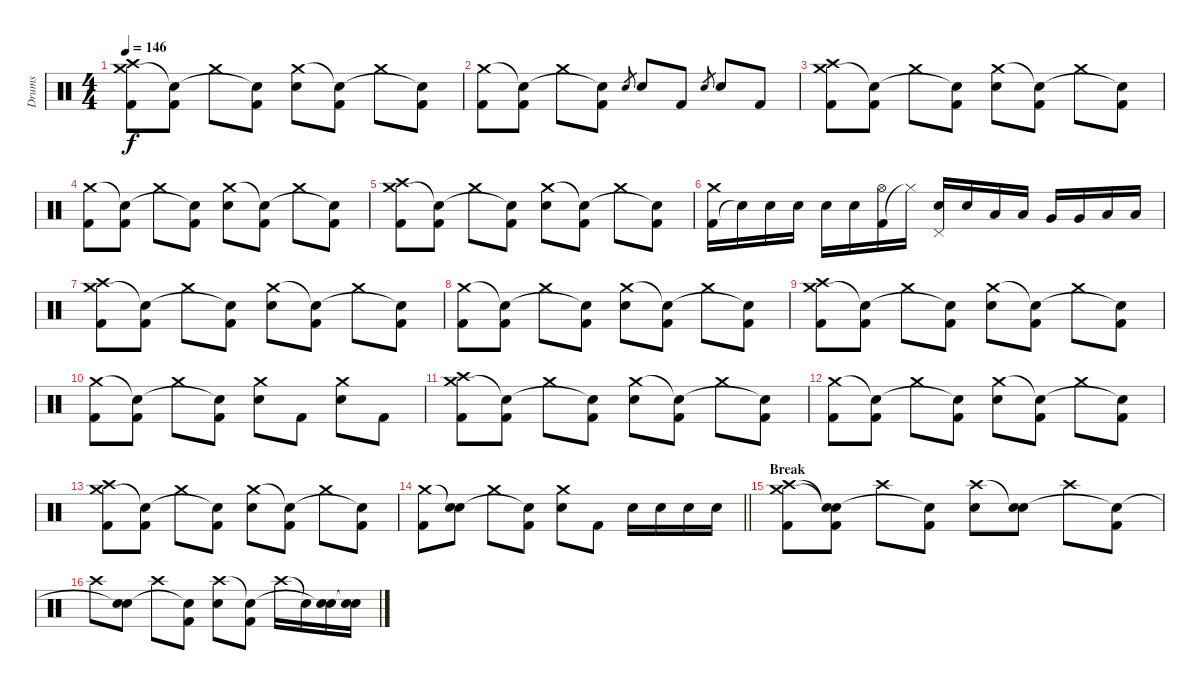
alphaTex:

\track ("Drums" "Drums") {instrument percussion}
\staff {score}
\articulation defaults
\ts (4 4)
\tempo 146
\clef neutral
\ks c
("Kick (hit) 2" "Crash medium (hit)" "Crash high (hit)").8{dy f} ("Kick (hit) 2" "Snare (hit)"{t}).8 "Crash medium (hit)".8 ("Kick (hit) 2" "Snare (hit)"{t}).8 ("Electric Snare (hit)" "Crash medium (hit)").8 ("Kick (hit) 2" "Snare (hit)"{t}).8 "Crash medium (hit)".8 ("Kick (hit) 2" "Snare (hit)"{t}).8 |
("Kick (hit) 2" "Crash medium (hit)").8 ("Kick (hit) 2" "Snare (hit)"{t}).8 "Crash medium (hit)".8 ("Kick (hit) 2" "Snare (hit)"{t}).8 "Electric Snare (hit)".8{gr} "Electric Snare (hit)".8 "Kick (hit) 2".8 "Electric Snare (hit)".8{gr} "Electric Snare (hit)".8 "Kick (hit) 2".8 |
("Kick (hit) 2" "Crash medium (hit)" "Crash high (hit)").8 ("Kick (hit) 2" "Snare (hit)"{t}).8 "Crash medium (hit)".8 ("Kick (hit) 2" "Snare (hit)"{t}).8 ("Electric Snare (hit)" "Crash medium (hit)").8 ("Kick (hit) 2" "Snare (hit)"{t}).8 "Crash medium (hit)".8 ("Kick (hit) 2" "Snare (hit)"{t}).8 |
("Kick (hit) 2" "Crash medium (hit)").8 ("Kick (hit) 2" "Snare (hit)"{t}).8 "Crash medium (hit)".8 ("Kick (hit) 2" "Snare (hit)"{t}).8 ("Electric Snare (hit)" "Crash medium (hit)").8 ("Kick (hit) 2" "Snare (hit)"{t}).8 "Crash medium (hit)".8 ("Kick (hit) 2" "Snare (hit)"{t}).8 |
("Kick (hit) 2" "Crash medium (hit)" "Crash high (hit)").8 ("Kick (hit) 2" "Snare (hit)"{t}).8 "Crash medium (hit)".8 ("Kick (hit) 2" "Snare (hit)"{t}).8 ("Electric Snare (hit)" "Crash medium (hit)").8 ("Kick (hit) 2" "Snare (hit)"{t}).8 "Crash medium (hit)".8 ("Kick (hit) 2" "Snare (hit)"{t}).8 |
("Kick (hit) 2" "Crash medium (hit)").16 "Electric Snare (hit)"{t}.16 "Electric Snare (hit)".16 "Electric Snare (hit)".16 "Electric Snare (hit)".16 "Electric Snare (hit)".16 ("Kick (hit) 2" "Hi-Hat (open)").16 "Hi-Hat (closed)"{t}.16 ("Electric Snare (hit)" "Pedal Hi-Hat (hit)").16 "Electric Snare (hit)".16 "Low Tom (hit)".16 "Low Tom (hit)".16 "Very Low Tom (hit)".16 "Very Low Tom (hit)".16 "Low Floor Tom (hit)".16 "Low Floor Tom (hit)".16 |
("Kick (hit) 2" "Crash medium (hit)" "Crash high (hit)").8 ("Kick (hit) 2" "Snare (hit)"{t}).8 "Crash medium (hit)".8 ("Kick (hit) 2" "Snare (hit)"{t}).8 ("Electric Snare (hit)" "Crash medium (hit)").8 ("Kick (hit) 2" "Snare (hit)"{t}).8 "Crash medium (hit)".8 ("Kick (hit) 2" "Snare (hit)"{t}).8 |
("Kick (hit) 2" "Crash medium (hit)").8 ("Kick (hit) 2" "Snare (hit)"{t}).8 "Crash medium (hit)".8 ("Kick (hit) 2" "Snare (hit)"{t}).8 ("Electric Snare (hit)" "Crash medium (hit)").8 ("Kick (hit) 2" "Snare (hit)"{t}).8 "Crash medium (hit)".8 ("Kick (hit) 2" "Snare (hit)"{t}).8 |
("Kick (hit) 2" "Crash medium (hit)" "Crash high (hit)").8 ("Kick (hit) 2" "Snare (hit)"{t}).8 "Crash medium (hit)".8 ("Kick (hit) 2" "Snare (hit)"{t}).8 ("Electric Snare (hit)" "Crash medium (hit)").8 ("Kick (hit) 2" "Snare (hit)"{t}).8 "Crash medium (hit)".8 ("Kick (hit) 2" "Snare (hit)"{t}).8 |
("Kick (hit) 2" "Crash medium (hit)").8 ("Kick (hit) 2" "Snare (hit)"{t}).8 "Crash medium (hit)".8 ("Kick (hit) 2" "Snare (hit)"{t}).8 ("Electric Snare (hit)" "Crash medium (hit)").8 "Kick (hit) 2".8 ("Electric Snare (hit)" "Crash medium (hit)").8 "Kick (hit) 2".8 |
("Kick (hit) 2" "Crash medium (hit)" "Crash high (hit)").8 ("Kick (hit) 2" "Snare (hit)"{t}).8 "Crash medium (hit)".8 ("Kick (hit) 2" "Snare (hit)"{t}).8 ("Electric Snare (hit)" "Crash medium (hit)").8 ("Kick (hit) 2" "Snare (hit)"{t}).8 "Crash medium (hit)".8 ("Kick (hit) 2" "Snare (hit)"{t}).8 |
("Kick (hit) 2" "Crash medium (hit)").8 ("Kick (hit) 2" "Snare (hit)"{t}).8 "Crash medium (hit)".8 ("Kick (hit) 2" "Snare (hit)"{t}).8 ("Electric Snare (hit)" "Crash medium (hit)").8 ("Kick (hit) 2" "Snare (hit)"{t}).8 "Crash medium (hit)".8 ("Kick (hit) 2" "Snare (hit)"{t}).8 |
("Kick (hit) 2" "Crash medium (hit)" "Crash high (hit)").8 ("Kick (hit) 2" "Snare (hit)"{t}).8 "Crash medium (hit)".8 ("Kick (hit) 2" "Snare (hit)"{t}).8 ("Electric Snare (hit)" "Crash medium (hit)").8 ("Kick (hit) 2" "Snare (hit)"{t}).8 "Crash medium (hit)".8 ("Kick (hit) 2" "Snare (hit)"{t}).8 |
\barLineRight lightlight
("Kick (hit) 2" "Crash medium (hit)").8 ("Electric Snare (hit)" "Snare (hit)"{t}).8 "Crash medium (hit)".8 ("Kick (hit) 2" "Snare (hit)"{t}).8 ("Electric Snare (hit)" "Crash medium (hit)").8 "Kick (hit) 2".8 "Electric Snare (hit)".16 "Electric Snare (hit)".16 "Electric Snare (hit)".16 "Electric Snare (hit)".16 |
\section ("" "Break")
("Kick (hit) 2" "Crash medium (hit)" "Crash high (hit)").8 ("Kick (hit) 2" "Snare (hit)"{t} "Snare (hit)"{t}).8 "Crash high (hit)".8 ("Kick (hit) 2" "Snare (hit)"{t}).8 ("Electric Snare (hit)" "Crash high (hit)").8 ("Electric Snare (hit)" "Snare (hit)"{t}).8 "Crash high (hit)".8 ("Kick (hit) 2" "Snare (hit)"{t}).8 |
"Crash high (hit)".8 ("Electric Snare (hit)" "Snare (hit)"{t}).8 "Crash high (hit)".8 ("Kick (hit) 2" "Snare (hit)"{t}).8 ("Electric Snare (hit)" "Crash high (hit)").8 ("Kick (hit) 2" "Snare (hit)"{t}).8 "Crash high (hit)".16 "Snare (hit)"{t}.16 ("Electric Snare (hit)" "Snare (hit)"{t}).16 ("Electric Snare (hit)" "Snare (hit)"{t}).16
